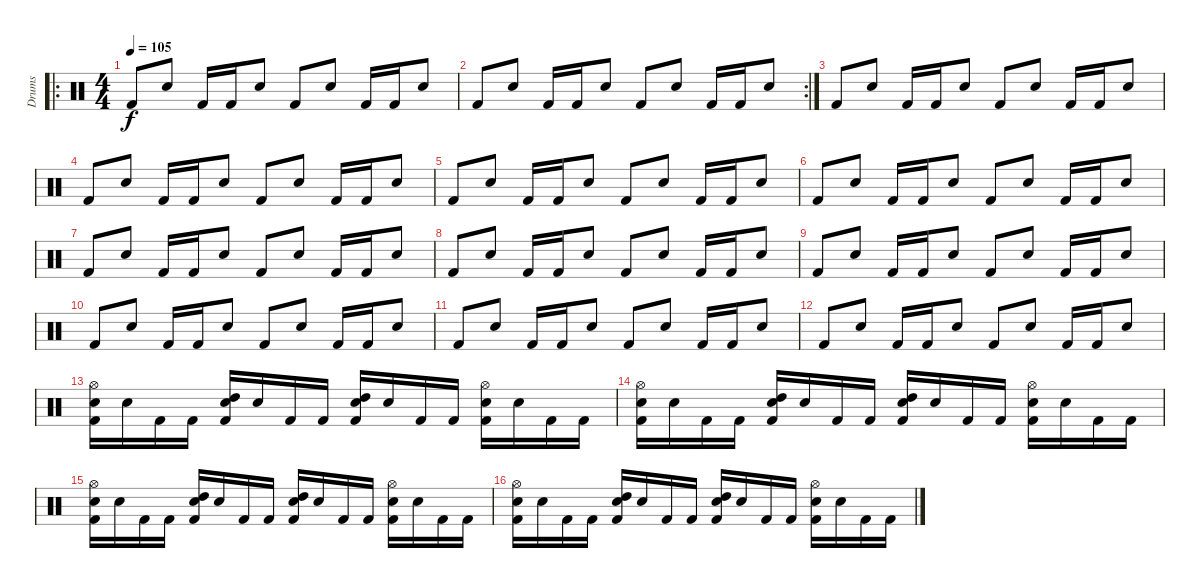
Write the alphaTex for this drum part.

\track ("Drums" "Drums") {instrument percussion}
\staff {score}
\articulation defaults
\ro
\ts (4 4)
\tempo 105
\clef neutral
\ks c "Kick (hit) 2".8{dy f} "Snare (hit) 2".8 "Kick (hit) 2".16 "Kick (hit) 2".16 "Snare (hit) 2".8 "Kick (hit) 2".8 "Snare (hit) 2".8 "Kick (hit) 2".16 "Kick (hit) 2".16 "Snare (hit) 2".8
|
\rc 2 "Kick (hit) 2".8 "Snare (hit) 2".8 "Kick (hit) 2".16 "Kick (hit) 2".16 "Snare (hit) 2".8 "Kick (hit) 2".8 "Snare (hit) 2".8 "Kick (hit) 2".16 "Kick (hit) 2".16 "Snare (hit) 2".8
|
"Kick (hit) 2".8 "Snare (hit) 2".8 "Kick (hit) 2".16 "Kick (hit) 2".16 "Snare (hit) 2".8 "Kick (hit) 2".8 "Snare (hit) 2".8 "Kick (hit) 2".16 "Kick (hit) 2".16 "Snare (hit) 2".8 |
"Kick (hit) 2".8 "Snare (hit) 2".8 "Kick (hit) 2".16 "Kick (hit) 2".16 "Snare (hit) 2".8 "Kick (hit) 2".8 "Snare (hit) 2".8 "Kick (hit) 2".16 "Kick (hit) 2".16 "Snare (hit) 2".8 |
"Kick (hit) 2".8 "Snare (hit) 2".8 "Kick (hit) 2".16 "Kick (hit) 2".16 "Snare (hit) 2".8 "Kick (hit) 2".8 "Snare (hit) 2".8 "Kick (hit) 2".16 "Kick (hit) 2".16 "Snare (hit) 2".8 |
"Kick (hit) 2".8 "Snare (hit) 2".8 "Kick (hit) 2".16 "Kick (hit) 2".16 "Snare (hit) 2".8 "Kick (hit) 2".8 "Snare (hit) 2".8 "Kick (hit) 2".16 "Kick (hit) 2".16 "Snare (hit) 2".8 |
"Kick (hit) 2".8 "Snare (hit) 2".8 "Kick (hit) 2".16 "Kick (hit) 2".16 "Snare (hit) 2".8 "Kick (hit) 2".8 "Snare (hit) 2".8 "Kick (hit) 2".16 "Kick (hit) 2".16 "Snare (hit) 2".8 |
"Kick (hit) 2".8 "Snare (hit) 2".8 "Kick (hit) 2".16 "Kick (hit) 2".16 "Snare (hit) 2".8 "Kick (hit) 2".8 "Snare (hit) 2".8 "Kick (hit) 2".16 "Kick (hit) 2".16 "Snare (hit) 2".8 |
"Kick (hit) 2".8 "Snare (hit) 2".8 "Kick (hit) 2".16 "Kick (hit) 2".16 "Snare (hit) 2".8 "Kick (hit) 2".8 "Snare (hit) 2".8 "Kick (hit) 2".16 "Kick (hit) 2".16 "Snare (hit) 2".8 |
"Kick (hit) 2".8 "Snare (hit) 2".8 "Kick (hit) 2".16 "Kick (hit) 2".16 "Snare (hit) 2".8 "Kick (hit) 2".8 "Snare (hit) 2".8 "Kick (hit) 2".16 "Kick (hit) 2".16 "Snare (hit) 2".8 |
"Kick (hit) 2".8 "Snare (hit) 2".8 "Kick (hit) 2".16 "Kick (hit) 2".16 "Snare (hit) 2".8 "Kick (hit) 2".8 "Snare (hit) 2".8 "Kick (hit) 2".16 "Kick (hit) 2".16 "Snare (hit) 2".8 |
"Kick (hit) 2".8 "Snare (hit) 2".8 "Kick (hit) 2".16 "Kick (hit) 2".16 "Snare (hit) 2".8 "Kick (hit) 2".8 "Snare (hit) 2".8 "Kick (hit) 2".16 "Kick (hit) 2".16 "Snare (hit) 2".8 |
("Kick (hit) 2" "Snare (hit) 2" "Hi-Hat (open)").16 "Snare (hit) 2".16 "Kick (hit) 2".16 "Kick (hit) 2".16 ("Kick (hit) 2" "Snare (hit) 2" "High Tom (hit)").16 "Snare (hit) 2".16 "Kick (hit) 2".16 "Kick (hit) 2".16 ("Kick (hit) 2" "Snare (hit) 2" "High Tom (hit)").16 "Snare (hit) 2".16 "Kick (hit) 2".16 "Kick (hit) 2".16 ("Kick (hit) 2" "Snare (hit) 2" "Hi-Hat (open)").16 "Snare (hit) 2".16 "Kick (hit) 2".16 "Kick (hit) 2".16 |
("Kick (hit) 2" "Snare (hit) 2" "Hi-Hat (open)").16 "Snare (hit) 2".16 "Kick (hit) 2".16 "Kick (hit) 2".16 ("Kick (hit) 2" "Snare (hit) 2" "High Tom (hit)").16 "Snare (hit) 2".16 "Kick (hit) 2".16 "Kick (hit) 2".16 ("Kick (hit) 2" "Snare (hit) 2" "High Tom (hit)").16 "Snare (hit) 2".16 "Kick (hit) 2".16 "Kick (hit) 2".16 ("Kick (hit) 2" "Snare (hit) 2" "Hi-Hat (open)").16 "Snare (hit) 2".16 "Kick (hit) 2".16 "Kick (hit) 2".16 |
("Kick (hit) 2" "Snare (hit) 2" "Hi-Hat (open)").16 "Snare (hit) 2".16 "Kick (hit) 2".16 "Kick (hit) 2".16 ("Kick (hit) 2" "Snare (hit) 2" "High Tom (hit)").16 "Snare (hit) 2".16 "Kick (hit) 2".16 "Kick (hit) 2".16 ("Kick (hit) 2" "Snare (hit) 2" "High Tom (hit)").16 "Snare (hit) 2".16 "Kick (hit) 2".16 "Kick (hit) 2".16 ("Kick (hit) 2" "Snare (hit) 2" "Hi-Hat (open)").16 "Snare (hit) 2".16 "Kick (hit) 2".16 "Kick (hit) 2".16 |
("Kick (hit) 2" "Snare (hit) 2" "Hi-Hat (open)").16 "Snare (hit) 2".16 "Kick (hit) 2".16 "Kick (hit) 2".16 ("Kick (hit) 2" "Snare (hit) 2" "High Tom (hit)").16 "Snare (hit) 2".16 "Kick (hit) 2".16 "Kick (hit) 2".16 ("Kick (hit) 2" "Snare (hit) 2" "High Tom (hit)").16 "Snare (hit) 2".16 "Kick (hit) 2".16 "Kick (hit) 2".16 ("Kick (hit) 2" "Snare (hit) 2" "Hi-Hat (open)").16 "Snare (hit) 2".16 "Kick (hit) 2".16 "Kick (hit) 2".16
